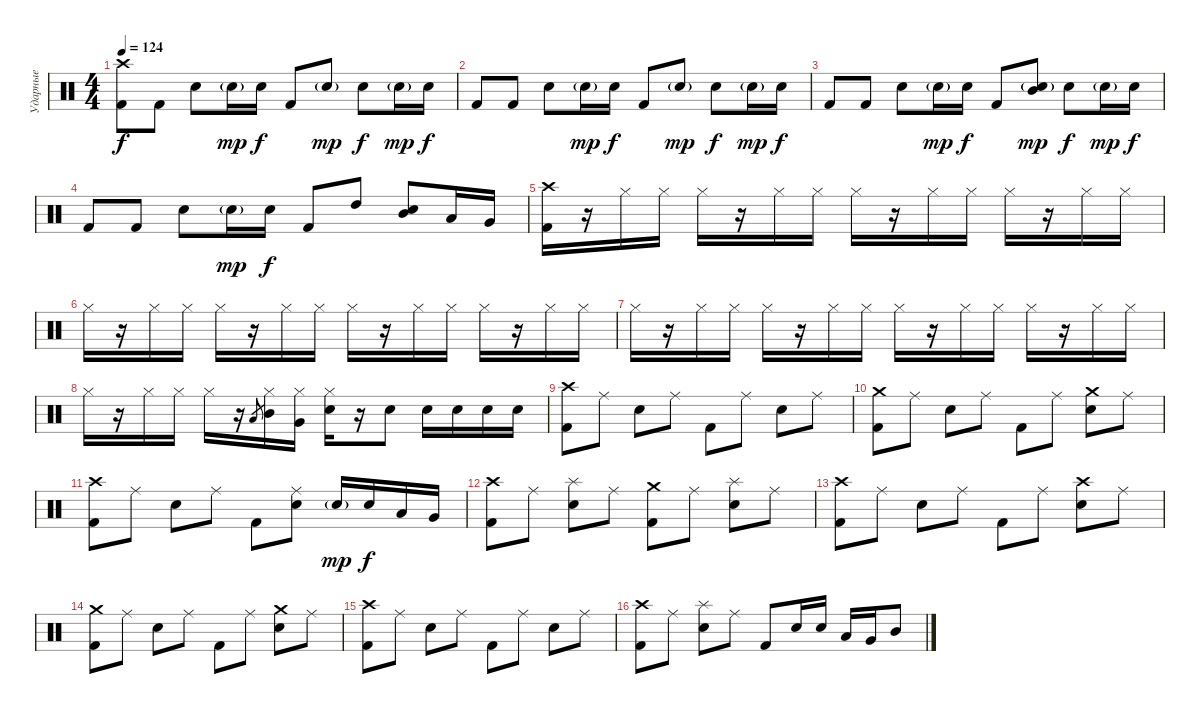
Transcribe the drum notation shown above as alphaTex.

\track ("Ударные" "Ударные") {instrument percussion}
\staff {score}
\articulation defaults
\ts (4 4)
\tempo 124
\clef neutral
\ks c
("Crash high (hit)" "Kick (hit) 2").8{dy f} "Kick (hit) 2".8 "Electric Snare (hit)".8 "Electric Snare (hit)"{g}.16{dy mp} "Electric Snare (hit)".16{dy f} "Kick (hit) 2".8 "Electric Snare (hit)"{g}.8{dy mp} "Electric Snare (hit)".8{dy f} "Electric Snare (hit)"{g}.16{dy mp} "Electric Snare (hit)".16{dy f} |
"Kick (hit) 2".8 "Kick (hit) 2".8 "Electric Snare (hit)".8 "Electric Snare (hit)"{g}.16{dy mp} "Electric Snare (hit)".16{dy f} "Kick (hit) 2".8 "Electric Snare (hit)"{g}.8{dy mp} "Electric Snare (hit)".8{dy f} "Electric Snare (hit)"{g}.16{dy mp} "Electric Snare (hit)".16{dy f} |
"Kick (hit) 2".8 "Kick (hit) 2".8 "Electric Snare (hit)".8 "Electric Snare (hit)"{g}.16{dy mp} "Electric Snare (hit)".16{dy f} "Kick (hit) 2".8 ("Mid Tom (hit)" "Electric Snare (hit)"{g}).8{dy mp} "Electric Snare (hit)".8{dy f} "Electric Snare (hit)"{g}.16{dy mp} "Electric Snare (hit)".16{dy f} |
"Kick (hit) 2".8 "Kick (hit) 2".8 "Electric Snare (hit)".8 "Electric Snare (hit)"{g}.16{dy mp} "Electric Snare (hit)".16{dy f} "Kick (hit) 2".8 "High Tom (hit)".8 ("Mid Tom (hit)" "Electric Snare (hit)").8 "Low Tom (hit)".16 "Very Low Tom (hit)".16 |
("Crash high (hit)" "Kick (hit) 2").16 r.16 "Hi-Hat (closed)".16 "Hi-Hat (closed)".16 "Hi-Hat (closed)".16 r.16 "Hi-Hat (closed)".16 "Hi-Hat (closed)".16 "Hi-Hat (closed)".16 r.16 "Hi-Hat (closed)".16 "Hi-Hat (closed)".16 "Hi-Hat (closed)".16 r.16 "Hi-Hat (closed)".16 "Hi-Hat (closed)".16 |
"Hi-Hat (closed)".16 r.16 "Hi-Hat (closed)".16 "Hi-Hat (closed)".16 "Hi-Hat (closed)".16 r.16 "Hi-Hat (closed)".16 "Hi-Hat (closed)".16 "Hi-Hat (closed)".16 r.16 "Hi-Hat (closed)".16 "Hi-Hat (closed)".16 "Hi-Hat (closed)".16 r.16 "Hi-Hat (closed)".16 "Hi-Hat (closed)".16 |
"Hi-Hat (closed)".16 r.16 "Hi-Hat (closed)".16 "Hi-Hat (closed)".16 "Hi-Hat (closed)".16 r.16 "Hi-Hat (closed)".16 "Hi-Hat (closed)".16 "Hi-Hat (closed)".16 r.16 "Hi-Hat (closed)".16 "Hi-Hat (closed)".16 "Hi-Hat (closed)".16 r.16 "Hi-Hat (closed)".16 "Hi-Hat (closed)".16 |
"Hi-Hat (closed)".16 r.16 "Hi-Hat (closed)".16 "Hi-Hat (closed)".16 "Hi-Hat (closed)".16 r.16 "Low Tom (hit)".8{gr} ("Hi-Hat (closed)" "Mid Tom (hit)").16 ("Hi-Hat (closed)" "Very Low Tom (hit)").16 ("Hi-Hat (closed)" "Electric Snare (hit)").16 r.16 "Electric Snare (hit)".8 "Electric Snare (hit)".16 "Electric Snare (hit)".16 "Electric Snare (hit)".16 "Electric Snare (hit)".16 |
("Crash high (hit)" "Kick (hit) 2").8 "Ride (middle)".8 "Electric Snare (hit)".8 "Ride (middle)".8 "Kick (hit) 2".8 "Ride (middle)".8 "Electric Snare (hit)".8 "Ride (middle)".8 |
("Crash medium (hit)" "Kick (hit) 2").8 "Ride (middle)".8 "Electric Snare (hit)".8 "Ride (middle)".8 "Kick (hit) 2".8 "Ride (middle)".8 ("Crash medium (hit)" "Electric Snare (hit)").8 "Ride (middle)".8 |
("Crash high (hit)" "Kick (hit) 2").8 "Ride (middle)".8 "Electric Snare (hit)".8 "Ride (middle)".8 "Kick (hit) 2".8 ("Ride (middle)" "Electric Snare (hit)").8 "Electric Snare (hit)"{g}.16{dy mp} "Electric Snare (hit)".16{dy f} "Low Tom (hit)".16 "Very Low Tom (hit)".16 |
("Crash high (hit)" "Kick (hit) 2").8 "Ride (middle)".8 ("Splash (hit)" "Electric Snare (hit)").8 "Ride (middle)".8 ("Crash medium (hit)" "Kick (hit) 2").8 "Ride (middle)".8 ("Splash (hit)" "Electric Snare (hit)").8 "Ride (middle)".8 |
("Crash high (hit)" "Kick (hit) 2").8 "Ride (middle)".8 "Electric Snare (hit)".8 "Ride (middle)".8 "Kick (hit) 2".8 "Ride (middle)".8 ("Crash high (hit)" "Electric Snare (hit)").8 "Ride (middle)".8 |
("Crash medium (hit)" "Kick (hit) 2").8 "Ride (middle)".8 "Electric Snare (hit)".8 "Ride (middle)".8 "Kick (hit) 2".8 "Ride (middle)".8 ("Crash medium (hit)" "Electric Snare (hit)").8 "Ride (middle)".8 |
("Crash high (hit)" "Kick (hit) 2").8 "Ride (middle)".8 "Electric Snare (hit)".8 "Ride (middle)".8 "Kick (hit) 2".8 "Ride (middle)".8 "Electric Snare (hit)".8 "Ride (middle)".8 |
("Crash high (hit)" "Kick (hit) 2").8 "Ride (middle)".8 ("Splash (hit)" "Electric Snare (hit)").8 "Ride (middle)".8 "Kick (hit) 2".8 "Electric Snare (hit)".16 "Electric Snare (hit)".16 "Low Tom (hit)".16 "Very Low Tom (hit)".16 "Mid Tom (hit)".8
